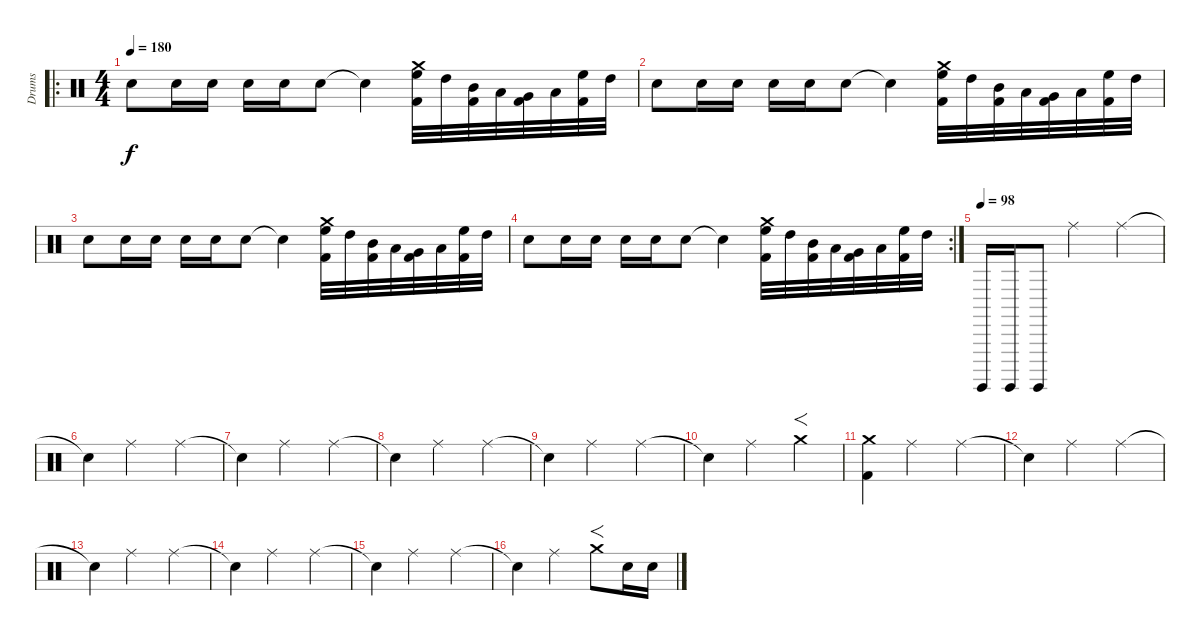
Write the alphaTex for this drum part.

\track ("Drums" "Drums") {instrument percussion}
\staff {score}
\articulation defaults
\ro
\ts (4 4)
\tempo 180
\clef neutral
\ks c "Electric Snare (hit)".8{dy f} "Electric Snare (hit)".16 "Electric Snare (hit)".16 "Electric Snare (hit)".16 "Electric Snare (hit)".16 "Electric Snare (hit)".8 "Electric Snare (hit)"{t}.4
("High Floor Tom (hit)" "Kick (hit) 2" "Crash medium (hit)").32 "High Tom (hit)".32 ("Mid Tom (hit)" "Kick (hit) 2").32 "Low Tom (hit)".32 ("Very Low Tom (hit)" "Kick (hit) 2").32 "Low Floor Tom (hit)".32 ("High Floor Tom (hit)" "Kick (hit) 2").32 "High Tom (hit)".32 |
"Electric Snare (hit)".8 "Electric Snare (hit)".16 "Electric Snare (hit)".16 "Electric Snare (hit)".16 "Electric Snare (hit)".16 "Electric Snare (hit)".8 "Electric Snare (hit)"{t}.4 ("High Floor Tom (hit)" "Kick (hit) 2" "Crash medium (hit)").32 "High Tom (hit)".32 ("Mid Tom (hit)" "Kick (hit) 2").32 "Low Tom (hit)".32 ("Very Low Tom (hit)" "Kick (hit) 2").32 "Low Floor Tom (hit)".32 ("High Floor Tom (hit)" "Kick (hit) 2").32 "High Tom (hit)".32 |
"Electric Snare (hit)".8 "Electric Snare (hit)".16 "Electric Snare (hit)".16 "Electric Snare (hit)".16 "Electric Snare (hit)".16 "Electric Snare (hit)".8 "Electric Snare (hit)"{t}.4 ("High Floor Tom (hit)" "Kick (hit) 2" "Crash medium (hit)").32 "High Tom (hit)".32 ("Mid Tom (hit)" "Kick (hit) 2").32 "Low Tom (hit)".32 ("Very Low Tom (hit)" "Kick (hit) 2").32 "Low Floor Tom (hit)".32 ("High Floor Tom (hit)" "Kick (hit) 2").32 "High Tom (hit)".32 |
\rc 2 "Electric Snare (hit)".8 "Electric Snare (hit)".16 "Electric Snare (hit)".16 "Electric Snare (hit)".16 "Electric Snare (hit)".16 "Electric Snare (hit)".8 "Electric Snare (hit)"{t}.4
("High Floor Tom (hit)" "Kick (hit) 2" "Crash medium (hit)").32 "High Tom (hit)".32 ("Mid Tom (hit)" "Kick (hit) 2").32 "Low Tom (hit)".32 ("Very Low Tom (hit)" "Kick (hit) 2").32 "Low Floor Tom (hit)".32 ("High Floor Tom (hit)" "Kick (hit) 2").32 "High Tom (hit)".32 |
\tempo (98)
"Surdo (hit)".16 "Surdo (hit)".16 "Surdo (hit)".8 "Ride (middle)".2 "Ride (middle)".4 |
"Snare (hit)"{t}.4 "Ride (middle)".2 "Ride (middle)".4 |
"Snare (hit)"{t}.4 "Ride (middle)".2 "Ride (middle)".4 |
"Snare (hit)"{t}.4 "Ride (middle)".2 "Ride (middle)".4 |
"Snare (hit)"{t}.4 "Ride (middle)".2 "Ride (middle)".4 |
"Snare (hit)"{t}.4 "Ride (middle)".2 "Crash medium (hit)".4{f} |
("Crash medium (hit)" "Kick (hit) 2").4 "Ride (middle)".2 "Ride (middle)".4 |
"Snare (hit)"{t}.4 "Ride (middle)".2 "Ride (middle)".4 |
"Snare (hit)"{t}.4 "Ride (middle)".2 "Ride (middle)".4 |
"Snare (hit)"{t}.4 "Ride (middle)".2 "Ride (middle)".4 |
"Snare (hit)"{t}.4 "Ride (middle)".2 "Ride (middle)".4 |
"Snare (hit)"{t}.4 "Ride (middle)".2 "Crash medium (hit)".8{f} "Electric Snare (hit)".16 "Electric Snare (hit)".16
